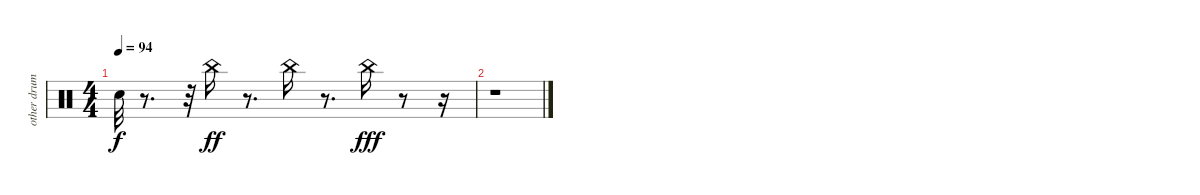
\track ("other drums" "other drum") {instrument percussion}
\staff {score}
\articulation defaults
\ts (4 4)
\tempo 94
\clef neutral
\ks c "Snare (hit)"{t}.32{dy f}
r.8{d} r.32 "China (hit)".16{dy ff volume 2} r.8{d} "China (hit)".16{volume 2} r.8{d} "China (hit)".16{dy fff} r.8 r.16 |
r.1
